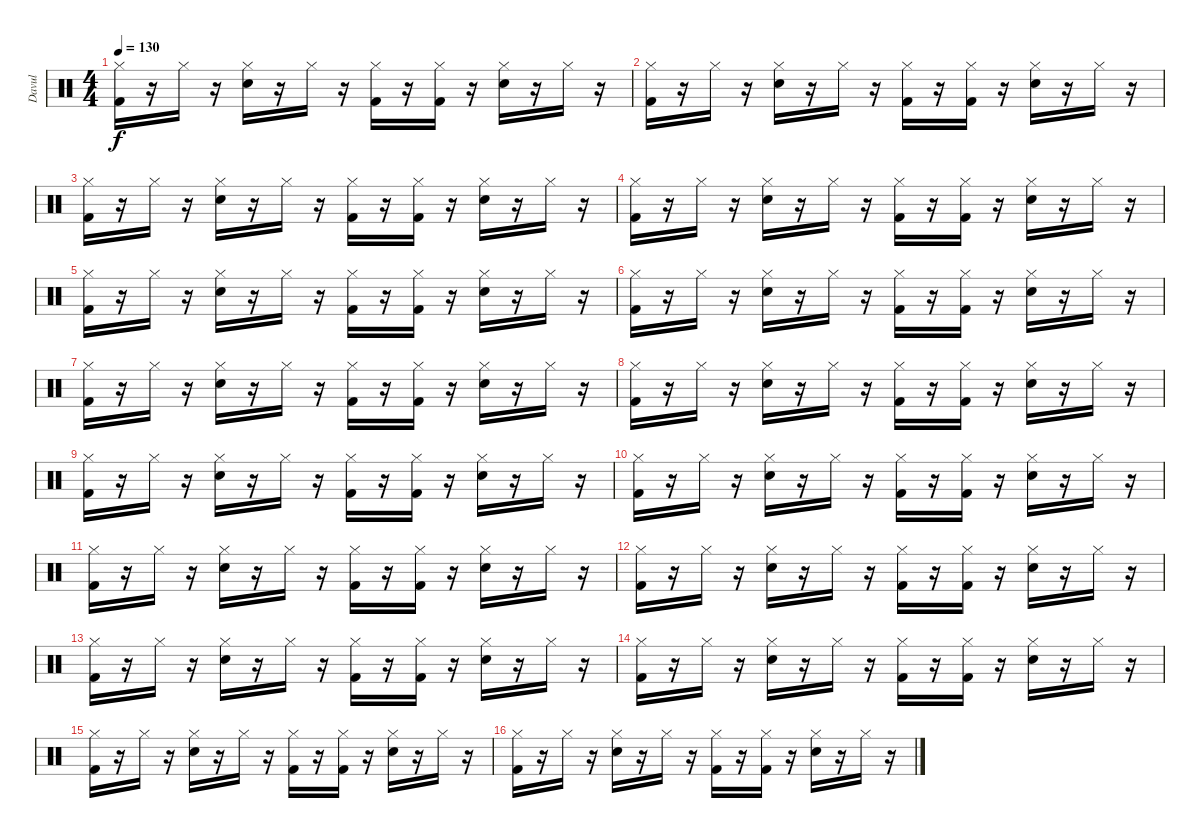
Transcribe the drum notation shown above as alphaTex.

\track ("Davul" "Davul") {instrument percussion}
\staff {score}
\articulation defaults
\ts (4 4)
\tempo 130
\clef neutral
\ks c
("Hi-Hat (closed)" "Kick (hit) 2").16{dy f} r.16 "Hi-Hat (closed)".16 r.16 ("Hi-Hat (closed)" "Snare (hit) 2").16 r.16 "Hi-Hat (closed)".16 r.16 ("Hi-Hat (closed)" "Kick (hit) 2").16 r.16 ("Hi-Hat (closed)" "Kick (hit) 2").16 r.16 ("Hi-Hat (closed)" "Snare (hit) 2").16 r.16 "Hi-Hat (closed)".16 r.16 |
("Hi-Hat (closed)" "Kick (hit) 2").16 r.16 "Hi-Hat (closed)".16 r.16 ("Hi-Hat (closed)" "Snare (hit) 2").16 r.16 "Hi-Hat (closed)".16 r.16 ("Hi-Hat (closed)" "Kick (hit) 2").16 r.16 ("Hi-Hat (closed)" "Kick (hit) 2").16 r.16 ("Hi-Hat (closed)" "Snare (hit) 2").16 r.16 "Hi-Hat (closed)".16 r.16 |
("Hi-Hat (closed)" "Kick (hit) 2").16 r.16 "Hi-Hat (closed)".16 r.16 ("Hi-Hat (closed)" "Snare (hit) 2").16 r.16 "Hi-Hat (closed)".16 r.16 ("Hi-Hat (closed)" "Kick (hit) 2").16 r.16 ("Hi-Hat (closed)" "Kick (hit) 2").16 r.16 ("Hi-Hat (closed)" "Snare (hit) 2").16 r.16 "Hi-Hat (closed)".16 r.16 |
("Hi-Hat (closed)" "Kick (hit) 2").16 r.16 "Hi-Hat (closed)".16 r.16 ("Hi-Hat (closed)" "Snare (hit) 2").16 r.16 "Hi-Hat (closed)".16 r.16 ("Hi-Hat (closed)" "Kick (hit) 2").16 r.16 ("Hi-Hat (closed)" "Kick (hit) 2").16 r.16 ("Hi-Hat (closed)" "Snare (hit) 2").16 r.16 "Hi-Hat (closed)".16 r.16 |
("Hi-Hat (closed)" "Kick (hit) 2").16 r.16 "Hi-Hat (closed)".16 r.16 ("Hi-Hat (closed)" "Snare (hit) 2").16 r.16 "Hi-Hat (closed)".16 r.16 ("Hi-Hat (closed)" "Kick (hit) 2").16 r.16 ("Hi-Hat (closed)" "Kick (hit) 2").16 r.16 ("Hi-Hat (closed)" "Snare (hit) 2").16 r.16 "Hi-Hat (closed)".16 r.16 |
("Hi-Hat (closed)" "Kick (hit) 2").16 r.16 "Hi-Hat (closed)".16 r.16 ("Hi-Hat (closed)" "Snare (hit) 2").16 r.16 "Hi-Hat (closed)".16 r.16 ("Hi-Hat (closed)" "Kick (hit) 2").16 r.16 ("Hi-Hat (closed)" "Kick (hit) 2").16 r.16 ("Hi-Hat (closed)" "Snare (hit) 2").16 r.16 "Hi-Hat (closed)".16 r.16 |
("Hi-Hat (closed)" "Kick (hit) 2").16 r.16 "Hi-Hat (closed)".16 r.16 ("Hi-Hat (closed)" "Snare (hit) 2").16 r.16 "Hi-Hat (closed)".16 r.16 ("Hi-Hat (closed)" "Kick (hit) 2").16 r.16 ("Hi-Hat (closed)" "Kick (hit) 2").16 r.16 ("Hi-Hat (closed)" "Snare (hit) 2").16 r.16 "Hi-Hat (closed)".16 r.16 |
("Hi-Hat (closed)" "Kick (hit) 2").16 r.16 "Hi-Hat (closed)".16 r.16 ("Hi-Hat (closed)" "Snare (hit) 2").16 r.16 "Hi-Hat (closed)".16 r.16 ("Hi-Hat (closed)" "Kick (hit) 2").16 r.16 ("Hi-Hat (closed)" "Kick (hit) 2").16 r.16 ("Hi-Hat (closed)" "Snare (hit) 2").16 r.16 "Hi-Hat (closed)".16 r.16 |
("Hi-Hat (closed)" "Kick (hit) 2").16 r.16 "Hi-Hat (closed)".16 r.16 ("Hi-Hat (closed)" "Snare (hit) 2").16 r.16 "Hi-Hat (closed)".16 r.16 ("Hi-Hat (closed)" "Kick (hit) 2").16 r.16 ("Hi-Hat (closed)" "Kick (hit) 2").16 r.16 ("Hi-Hat (closed)" "Snare (hit) 2").16 r.16 "Hi-Hat (closed)".16 r.16 |
("Hi-Hat (closed)" "Kick (hit) 2").16 r.16 "Hi-Hat (closed)".16 r.16 ("Hi-Hat (closed)" "Snare (hit) 2").16 r.16 "Hi-Hat (closed)".16 r.16 ("Hi-Hat (closed)" "Kick (hit) 2").16 r.16 ("Hi-Hat (closed)" "Kick (hit) 2").16 r.16 ("Hi-Hat (closed)" "Snare (hit) 2").16 r.16 "Hi-Hat (closed)".16 r.16 |
("Hi-Hat (closed)" "Kick (hit) 2").16 r.16 "Hi-Hat (closed)".16 r.16 ("Hi-Hat (closed)" "Snare (hit) 2").16 r.16 "Hi-Hat (closed)".16 r.16 ("Hi-Hat (closed)" "Kick (hit) 2").16 r.16 ("Hi-Hat (closed)" "Kick (hit) 2").16 r.16 ("Hi-Hat (closed)" "Snare (hit) 2").16 r.16 "Hi-Hat (closed)".16 r.16 |
("Hi-Hat (closed)" "Kick (hit) 2").16 r.16 "Hi-Hat (closed)".16 r.16 ("Hi-Hat (closed)" "Snare (hit) 2").16 r.16 "Hi-Hat (closed)".16 r.16 ("Hi-Hat (closed)" "Kick (hit) 2").16 r.16 ("Hi-Hat (closed)" "Kick (hit) 2").16 r.16 ("Hi-Hat (closed)" "Snare (hit) 2").16 r.16 "Hi-Hat (closed)".16 r.16 |
("Hi-Hat (closed)" "Kick (hit) 2").16 r.16 "Hi-Hat (closed)".16 r.16 ("Hi-Hat (closed)" "Snare (hit) 2").16 r.16 "Hi-Hat (closed)".16 r.16 ("Hi-Hat (closed)" "Kick (hit) 2").16 r.16 ("Hi-Hat (closed)" "Kick (hit) 2").16 r.16 ("Hi-Hat (closed)" "Snare (hit) 2").16 r.16 "Hi-Hat (closed)".16 r.16 |
("Hi-Hat (closed)" "Kick (hit) 2").16 r.16 "Hi-Hat (closed)".16 r.16 ("Hi-Hat (closed)" "Snare (hit) 2").16 r.16 "Hi-Hat (closed)".16 r.16 ("Hi-Hat (closed)" "Kick (hit) 2").16 r.16 ("Hi-Hat (closed)" "Kick (hit) 2").16 r.16 ("Hi-Hat (closed)" "Snare (hit) 2").16 r.16 "Hi-Hat (closed)".16 r.16 |
("Hi-Hat (closed)" "Kick (hit) 2").16 r.16 "Hi-Hat (closed)".16 r.16 ("Hi-Hat (closed)" "Snare (hit) 2").16 r.16 "Hi-Hat (closed)".16 r.16 ("Hi-Hat (closed)" "Kick (hit) 2").16 r.16 ("Hi-Hat (closed)" "Kick (hit) 2").16 r.16 ("Hi-Hat (closed)" "Snare (hit) 2").16 r.16 "Hi-Hat (closed)".16 r.16 |
("Hi-Hat (closed)" "Kick (hit) 2").16 r.16 "Hi-Hat (closed)".16 r.16 ("Hi-Hat (closed)" "Snare (hit) 2").16 r.16 "Hi-Hat (closed)".16 r.16 ("Hi-Hat (closed)" "Kick (hit) 2").16 r.16 ("Hi-Hat (closed)" "Kick (hit) 2").16 r.16 ("Hi-Hat (closed)" "Snare (hit) 2").16 r.16 "Hi-Hat (closed)".16 r.16
